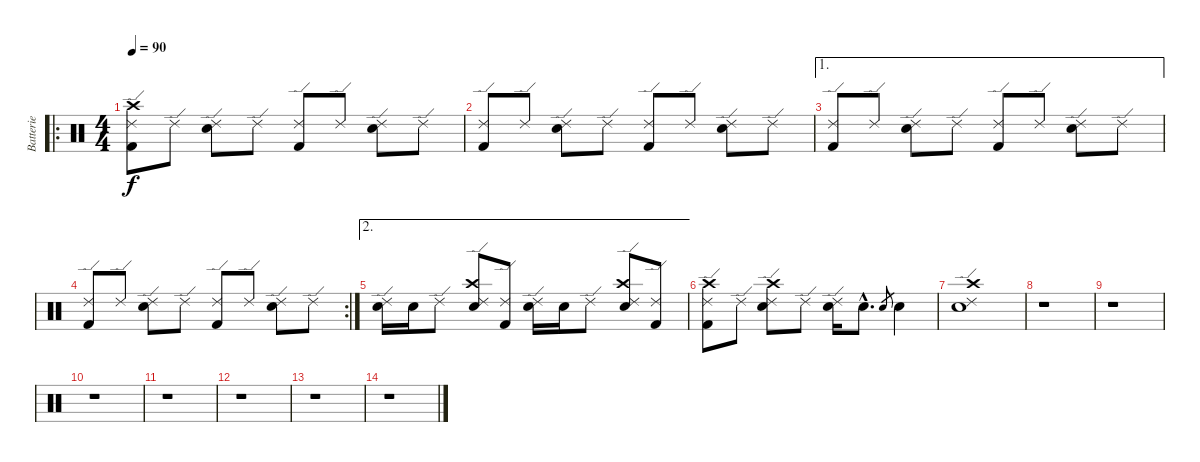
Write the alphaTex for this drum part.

\track ("Batterie" "Batterie") {instrument percussion}
\staff {score}
\articulation defaults
\ro
\ts (4 4)
\tempo 90
\clef neutral
\ks c
("Ride (edge) 2" "Kick (hit) 2" "Crash high (hit)").8{dy f} "Ride (edge) 2".8 ("Ride (edge) 2" "Electric Snare (hit)").8 "Ride (edge) 2".8 ("Ride (edge) 2" "Kick (hit) 2").8 "Ride (edge) 2".8 ("Ride (edge) 2" "Electric Snare (hit)").8 "Ride (edge) 2".8 |
("Ride (edge) 2" "Kick (hit) 2").8 "Ride (edge) 2".8 ("Ride (edge) 2" "Electric Snare (hit)").8 "Ride (edge) 2".8 ("Ride (edge) 2" "Kick (hit) 2").8 "Ride (edge) 2".8 ("Ride (edge) 2" "Electric Snare (hit)").8 "Ride (edge) 2".8 |
\ae 1
("Ride (edge) 2" "Kick (hit) 2").8 "Ride (edge) 2".8 ("Ride (edge) 2" "Electric Snare (hit)").8 "Ride (edge) 2".8 ("Ride (edge) 2" "Kick (hit) 2").8 "Ride (edge) 2".8 ("Ride (edge) 2" "Electric Snare (hit)").8 "Ride (edge) 2".8 |
\rc 2
("Ride (edge) 2" "Kick (hit) 2").8 "Ride (edge) 2".8 ("Ride (edge) 2" "Electric Snare (hit)").8 "Ride (edge) 2".8 ("Ride (edge) 2" "Kick (hit) 2").8 "Ride (edge) 2".8 ("Ride (edge) 2" "Electric Snare (hit)").8 "Ride (edge) 2".8 |
\ae 2
("Ride (edge) 2" "Electric Snare (hit)").16 "Electric Snare (hit)".16 "Ride (edge) 2".8 ("Ride (edge) 2" "Electric Snare (hit)" "Crash high (hit)").8 ("Ride (edge) 2" "Kick (hit) 2").8 ("Ride (edge) 2" "Electric Snare (hit)").16 "Electric Snare (hit)".16 "Ride (edge) 2".8 ("Ride (edge) 2" "Electric Snare (hit)" "Crash high (hit)").8 ("Ride (edge) 2" "Kick (hit) 2").8 |
("Ride (edge) 2" "Kick (hit) 2" "Crash high (hit)").8 "Ride (edge) 2".8 ("Ride (edge) 2" "Electric Snare (hit)" "Crash high (hit)").8 "Ride (edge) 2".8 ("Ride (edge) 2" "Electric Snare (hit)").16 "Electric Snare (hit)"{hac}.8{d} "Electric Snare (hit)".8{gr} "Electric Snare (hit)".4 |
("Ride (edge) 2" "Electric Snare (hit)" "Crash high (hit)").1 |
r.1 |
r.1 |
r.1 |
r.1 |
r.1 |
r.1 |
r.1
